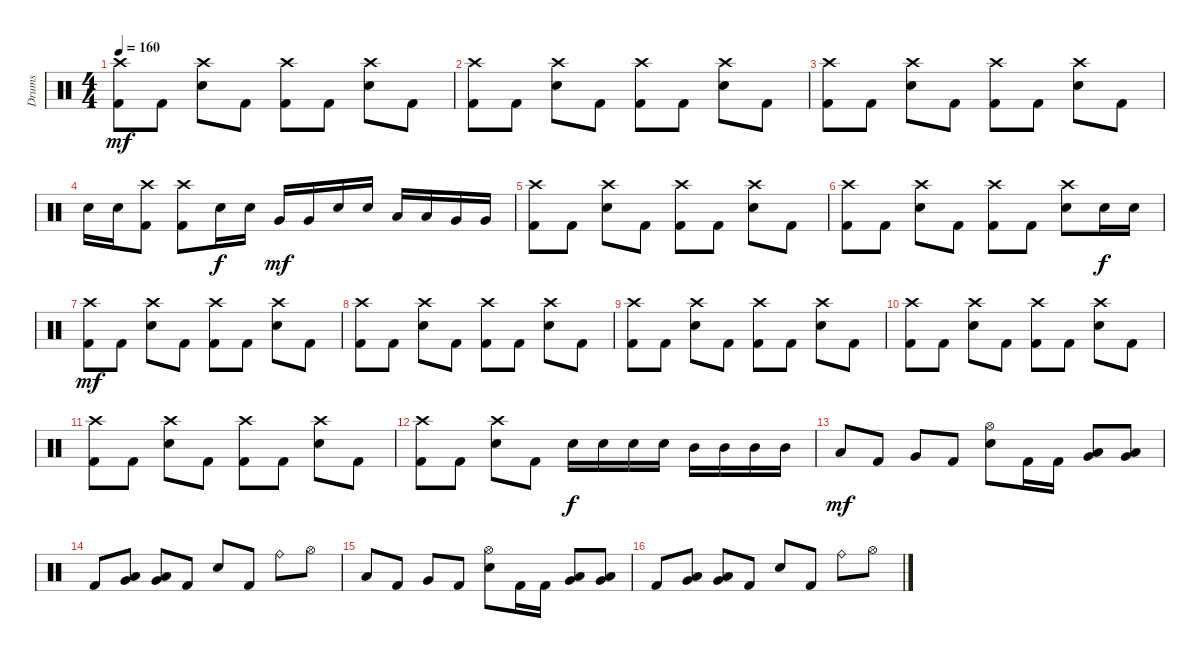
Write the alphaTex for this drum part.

\track ("Drums" "Drums") {instrument percussion}
\staff {score}
\articulation defaults
\ts (4 4)
\tempo 160
\clef neutral
\ks c
("Crash high (hit)" "Kick (hit) 2").8{dy mf} "Kick (hit) 2".8 ("Crash high (hit)" "Electric Snare (hit)").8 "Kick (hit) 2".8 ("Crash high (hit)" "Kick (hit) 2").8 "Kick (hit) 2".8 ("Crash high (hit)" "Electric Snare (hit)").8 "Kick (hit) 2".8 |
("Crash high (hit)" "Kick (hit) 2").8 "Kick (hit) 2".8 ("Crash high (hit)" "Electric Snare (hit)").8 "Kick (hit) 2".8 ("Crash high (hit)" "Kick (hit) 2").8 "Kick (hit) 2".8 ("Crash high (hit)" "Electric Snare (hit)").8 "Kick (hit) 2".8 |
("Crash high (hit)" "Kick (hit) 2").8 "Kick (hit) 2".8 ("Crash high (hit)" "Electric Snare (hit)").8 "Kick (hit) 2".8 ("Crash high (hit)" "Kick (hit) 2").8 "Kick (hit) 2".8 ("Crash high (hit)" "Electric Snare (hit)").8 "Kick (hit) 2".8 |
"Electric Snare (hit)".16 "Electric Snare (hit)".16 ("Crash high (hit)" "Kick (hit) 2").8 ("Crash high (hit)" "Kick (hit) 2").8 "Electric Snare (hit)".16{dy f} "Electric Snare (hit)".16 "Very Low Tom (hit)".16{dy mf} "Very Low Tom (hit)".16 "Electric Snare (hit)".16 "Electric Snare (hit)".16 "Low Tom (hit)".16 "Low Tom (hit)".16 "Very Low Tom (hit)".16 "Very Low Tom (hit)".16 |
("Crash high (hit)" "Kick (hit) 2").8 "Kick (hit) 2".8 ("Crash high (hit)" "Electric Snare (hit)").8 "Kick (hit) 2".8 ("Crash high (hit)" "Kick (hit) 2").8 "Kick (hit) 2".8 ("Crash high (hit)" "Electric Snare (hit)").8 "Kick (hit) 2".8 |
("Crash high (hit)" "Kick (hit) 2").8 "Kick (hit) 2".8 ("Crash high (hit)" "Electric Snare (hit)").8 "Kick (hit) 2".8 ("Crash high (hit)" "Kick (hit) 2").8 "Kick (hit) 2".8 ("Crash high (hit)" "Electric Snare (hit)").8 "Electric Snare (hit)".16{dy f} "Electric Snare (hit)".16 |
("Crash high (hit)" "Kick (hit) 2").8{dy mf} "Kick (hit) 2".8 ("Crash high (hit)" "Electric Snare (hit)").8 "Kick (hit) 2".8 ("Crash high (hit)" "Kick (hit) 2").8 "Kick (hit) 2".8 ("Crash high (hit)" "Electric Snare (hit)").8 "Kick (hit) 2".8 |
("Crash high (hit)" "Kick (hit) 2").8 "Kick (hit) 2".8 ("Crash high (hit)" "Electric Snare (hit)").8 "Kick (hit) 2".8 ("Crash high (hit)" "Kick (hit) 2").8 "Kick (hit) 2".8 ("Crash high (hit)" "Electric Snare (hit)").8 "Kick (hit) 2".8 |
("Crash high (hit)" "Kick (hit) 2").8 "Kick (hit) 2".8 ("Crash high (hit)" "Electric Snare (hit)").8 "Kick (hit) 2".8 ("Crash high (hit)" "Kick (hit) 2").8 "Kick (hit) 2".8 ("Crash high (hit)" "Electric Snare (hit)").8 "Kick (hit) 2".8 |
("Crash high (hit)" "Kick (hit) 2").8 "Kick (hit) 2".8 ("Crash high (hit)" "Electric Snare (hit)").8 "Kick (hit) 2".8 ("Crash high (hit)" "Kick (hit) 2").8 "Kick (hit) 2".8 ("Crash high (hit)" "Electric Snare (hit)").8 "Kick (hit) 2".8 |
("Crash high (hit)" "Kick (hit) 2").8 "Kick (hit) 2".8 ("Crash high (hit)" "Electric Snare (hit)").8 "Kick (hit) 2".8 ("Crash high (hit)" "Kick (hit) 2").8 "Kick (hit) 2".8 ("Crash high (hit)" "Electric Snare (hit)").8 "Kick (hit) 2".8 |
("Crash high (hit)" "Kick (hit) 2").8 "Kick (hit) 2".8 ("Crash high (hit)" "Electric Snare (hit)").8 "Kick (hit) 2".8 "Electric Snare (hit)".16{dy f} "Electric Snare (hit)".16 "Electric Snare (hit)".16 "Electric Snare (hit)".16 "Mid Tom (hit)".16 "Mid Tom (hit)".16 "Mid Tom (hit)".16 "Mid Tom (hit)".16 |
"Low Tom (hit)".8{dy mf} "Kick (hit) 2".8 "Very Low Tom (hit)".8 "Kick (hit) 2".8 ("Hi-Hat (open)" "Electric Snare (hit)").8 "Kick (hit) 2".16 "Kick (hit) 2".16 ("Very Low Tom (hit)" "Low Tom (hit)").8 ("Very Low Tom (hit)" "Low Tom (hit)").8 |
"Kick (hit) 2".8 ("Low Floor Tom (hit)" "Very Low Tom (hit)").8 ("Low Floor Tom (hit)" "Very Low Tom (hit)").8 "Kick (hit) 2".8 "Electric Snare (hit)".8 "Kick (hit) 2".8 "Ride (bell)".8 "Hi-Hat (open)".8 |
"Low Tom (hit)".8 "Kick (hit) 2".8 "Very Low Tom (hit)".8 "Kick (hit) 2".8 ("Hi-Hat (open)" "Electric Snare (hit)").8 "Kick (hit) 2".16 "Kick (hit) 2".16 ("Very Low Tom (hit)" "Low Tom (hit)").8 ("Very Low Tom (hit)" "Low Tom (hit)").8 |
"Kick (hit) 2".8 ("Low Floor Tom (hit)" "Very Low Tom (hit)").8 ("Low Floor Tom (hit)" "Very Low Tom (hit)").8 "Kick (hit) 2".8 "Electric Snare (hit)".8 "Kick (hit) 2".8 "Ride (bell)".8 "Hi-Hat (open)".8
